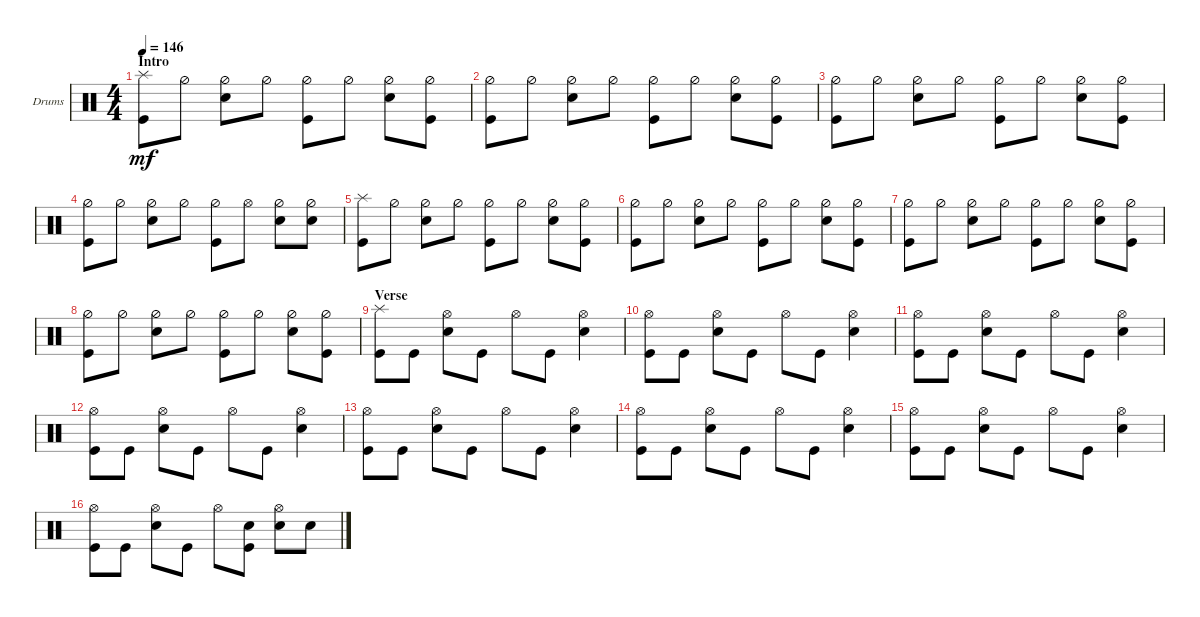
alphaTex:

\defaultSystemsLayout 4
\bracketExtendMode groupsimilarinstruments
\firstSystemTrackNameOrientation horizontal
\otherSystemsTrackNameOrientation horizontal
\track ("Drums" "Drums") {instrument percussion}
\staff {score}
\articulation defaults
\ts (4 4)
\section ("" "Intro")
\tempo 146
\clef neutral
\ks c
("Kick (hit)" "Splash (hit)").8{dy mf} "Hi-Hat (half)".8 ("Snare (hit) 2" "Hi-Hat (half)").8 "Hi-Hat (half)".8 ("Hi-Hat (half)" "Kick (hit)").8 "Hi-Hat (half)".8 ("Hi-Hat (half)" "Snare (hit) 2").8 ("Hi-Hat (half)" "Kick (hit)").8 |
("Hi-Hat (half)" "Kick (hit)").8 "Hi-Hat (half)".8 ("Hi-Hat (half)" "Snare (hit) 2").8 "Hi-Hat (half)".8 ("Hi-Hat (half)" "Kick (hit)").8 "Hi-Hat (half)".8 ("Hi-Hat (half)" "Snare (hit) 2").8 ("Hi-Hat (half)" "Kick (hit)").8 |
("Hi-Hat (half)" "Kick (hit)").8 "Hi-Hat (half)".8 ("Hi-Hat (half)" "Snare (hit) 2").8 "Hi-Hat (half)".8 ("Hi-Hat (half)" "Kick (hit)").8 "Hi-Hat (half)".8 ("Hi-Hat (half)" "Snare (hit) 2").8 ("Hi-Hat (half)" "Kick (hit)").8 |
("Hi-Hat (half)" "Kick (hit)").8 "Hi-Hat (half)".8 ("Hi-Hat (half)" "Snare (hit) 2").8 "Hi-Hat (half)".8 ("Hi-Hat (half)" "Kick (hit)").8 "Hi-Hat (open)".8 ("Hi-Hat (half)" "Snare (hit) 2").8 ("Hi-Hat (half)" "Snare (hit) 2").8 |
("Kick (hit)" "Splash (hit)").8 "Hi-Hat (half)".8 ("Snare (hit) 2" "Hi-Hat (half)").8 "Hi-Hat (half)".8 ("Hi-Hat (half)" "Kick (hit)").8 "Hi-Hat (half)".8 ("Hi-Hat (half)" "Snare (hit) 2").8 ("Hi-Hat (half)" "Kick (hit)").8 |
("Hi-Hat (half)" "Kick (hit)").8 "Hi-Hat (half)".8 ("Hi-Hat (half)" "Snare (hit) 2").8 "Hi-Hat (half)".8 ("Hi-Hat (half)" "Kick (hit)").8 "Hi-Hat (half)".8 ("Hi-Hat (half)" "Snare (hit) 2").8 ("Hi-Hat (half)" "Kick (hit)").8 |
("Hi-Hat (half)" "Kick (hit)").8 "Hi-Hat (half)".8 ("Hi-Hat (half)" "Snare (hit) 2").8 "Hi-Hat (half)".8 ("Hi-Hat (half)" "Kick (hit)").8 "Hi-Hat (half)".8 ("Hi-Hat (half)" "Snare (hit) 2").8 ("Hi-Hat (half)" "Kick (hit)").8 |
("Hi-Hat (half)" "Kick (hit)").8 "Hi-Hat (half)".8 ("Hi-Hat (half)" "Snare (hit) 2").8 "Hi-Hat (half)".8 ("Hi-Hat (half)" "Kick (hit)").8 "Hi-Hat (half)".8 ("Hi-Hat (half)" "Snare (hit) 2").8 ("Hi-Hat (half)" "Kick (hit)").8 |
\section ("" "Verse")
("Kick (hit)" "Splash (hit)").8 "Kick (hit)".8 ("Snare (hit) 2" "Hi-Hat (open)").8 "Kick (hit)".8 "Hi-Hat (open)".8 "Kick (hit)".8 ("Snare (hit) 2" "Hi-Hat (open)").4 |
("Kick (hit)" "Hi-Hat (open)").8 "Kick (hit)".8 ("Snare (hit) 2" "Hi-Hat (open)").8 "Kick (hit)".8 "Hi-Hat (open)".8 "Kick (hit)".8 ("Snare (hit) 2" "Hi-Hat (open)").4 |
("Kick (hit)" "Hi-Hat (open)").8 "Kick (hit)".8 ("Snare (hit) 2" "Hi-Hat (open)").8 "Kick (hit)".8 "Hi-Hat (open)".8 "Kick (hit)".8 ("Snare (hit) 2" "Hi-Hat (open)").4 |
("Kick (hit)" "Hi-Hat (open)").8 "Kick (hit)".8 ("Snare (hit) 2" "Hi-Hat (open)").8 "Kick (hit)".8 "Hi-Hat (open)".8 "Kick (hit)".8 ("Snare (hit) 2" "Hi-Hat (open)").4 |
("Kick (hit)" "Hi-Hat (open)").8 "Kick (hit)".8 ("Snare (hit) 2" "Hi-Hat (open)").8 "Kick (hit)".8 "Hi-Hat (open)".8 "Kick (hit)".8 ("Snare (hit) 2" "Hi-Hat (open)").4 |
("Kick (hit)" "Hi-Hat (open)").8 "Kick (hit)".8 ("Snare (hit) 2" "Hi-Hat (open)").8 "Kick (hit)".8 "Hi-Hat (open)".8 "Kick (hit)".8 ("Snare (hit) 2" "Hi-Hat (open)").4 |
("Kick (hit)" "Hi-Hat (open)").8 "Kick (hit)".8 ("Snare (hit) 2" "Hi-Hat (open)").8 "Kick (hit)".8 "Hi-Hat (open)".8 "Kick (hit)".8 ("Snare (hit) 2" "Hi-Hat (open)").4 |
("Kick (hit)" "Hi-Hat (open)").8 "Kick (hit)".8 ("Snare (hit) 2" "Hi-Hat (open)").8 "Kick (hit)".8 "Hi-Hat (open)".8 ("Kick (hit)" "Snare (hit) 2").8 ("Snare (hit) 2" "Hi-Hat (open)").8 "Snare (hit) 2".8
